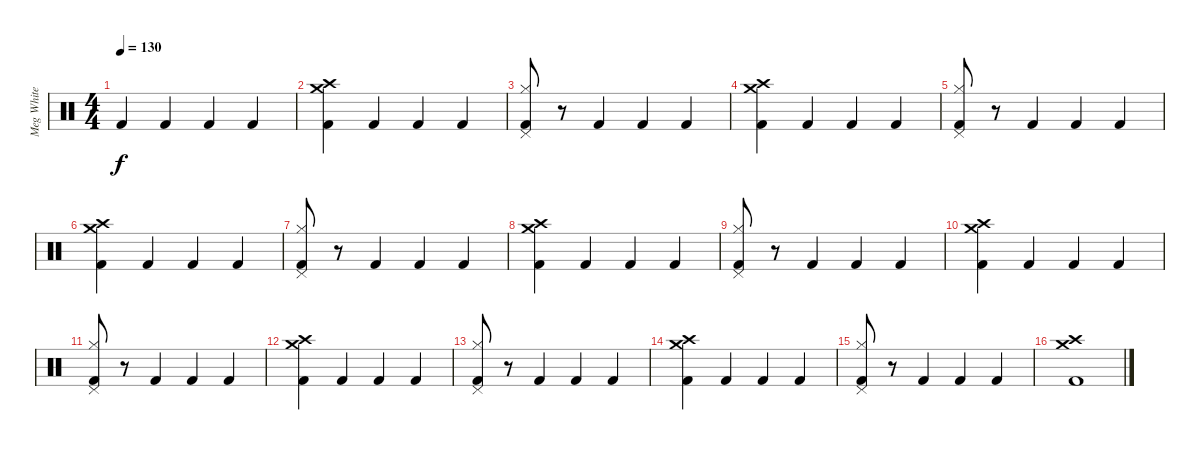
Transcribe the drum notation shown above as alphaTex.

\track ("Meg White" "Meg White") {instrument percussion}
\staff {score}
\articulation defaults
\ts (4 4)
\tempo 130
\clef neutral
\ks c "Kick (hit) 2".4{dy f} "Kick (hit) 2".4 "Kick (hit) 2".4 "Kick (hit) 2".4
|
("Kick (hit) 2" "Crash high (hit)" "Crash medium (hit)").4 "Kick (hit) 2".4 "Kick (hit) 2".4 "Kick (hit) 2".4 |
("Kick (hit) 2" "Hi-Hat (closed)" "Pedal Hi-Hat (hit)").8 r.8 "Kick (hit) 2".4 "Kick (hit) 2".4 "Kick (hit) 2".4 |
("Kick (hit) 2" "Crash high (hit)" "Crash medium (hit)").4 "Kick (hit) 2".4 "Kick (hit) 2".4 "Kick (hit) 2".4 |
("Kick (hit) 2" "Hi-Hat (closed)" "Pedal Hi-Hat (hit)").8 r.8 "Kick (hit) 2".4 "Kick (hit) 2".4 "Kick (hit) 2".4 |
("Kick (hit) 2" "Crash high (hit)" "Crash medium (hit)").4 "Kick (hit) 2".4 "Kick (hit) 2".4 "Kick (hit) 2".4 |
("Kick (hit) 2" "Hi-Hat (closed)" "Pedal Hi-Hat (hit)").8 r.8 "Kick (hit) 2".4 "Kick (hit) 2".4 "Kick (hit) 2".4 |
("Kick (hit) 2" "Crash high (hit)" "Crash medium (hit)").4 "Kick (hit) 2".4 "Kick (hit) 2".4 "Kick (hit) 2".4 |
("Kick (hit) 2" "Hi-Hat (closed)" "Pedal Hi-Hat (hit)").8 r.8 "Kick (hit) 2".4 "Kick (hit) 2".4 "Kick (hit) 2".4 |
("Kick (hit) 2" "Crash high (hit)" "Crash medium (hit)").4 "Kick (hit) 2".4 "Kick (hit) 2".4 "Kick (hit) 2".4 |
("Kick (hit) 2" "Hi-Hat (closed)" "Pedal Hi-Hat (hit)").8 r.8 "Kick (hit) 2".4 "Kick (hit) 2".4 "Kick (hit) 2".4 |
("Kick (hit) 2" "Crash high (hit)" "Crash medium (hit)").4 "Kick (hit) 2".4 "Kick (hit) 2".4 "Kick (hit) 2".4 |
("Kick (hit) 2" "Hi-Hat (closed)" "Pedal Hi-Hat (hit)").8 r.8 "Kick (hit) 2".4 "Kick (hit) 2".4 "Kick (hit) 2".4 |
("Kick (hit) 2" "Crash high (hit)" "Crash medium (hit)").4 "Kick (hit) 2".4 "Kick (hit) 2".4 "Kick (hit) 2".4 |
("Kick (hit) 2" "Hi-Hat (closed)" "Pedal Hi-Hat (hit)").8 r.8 "Kick (hit) 2".4 "Kick (hit) 2".4 "Kick (hit) 2".4 |
("Kick (hit) 2" "Crash high (hit)" "Crash medium (hit)").1
